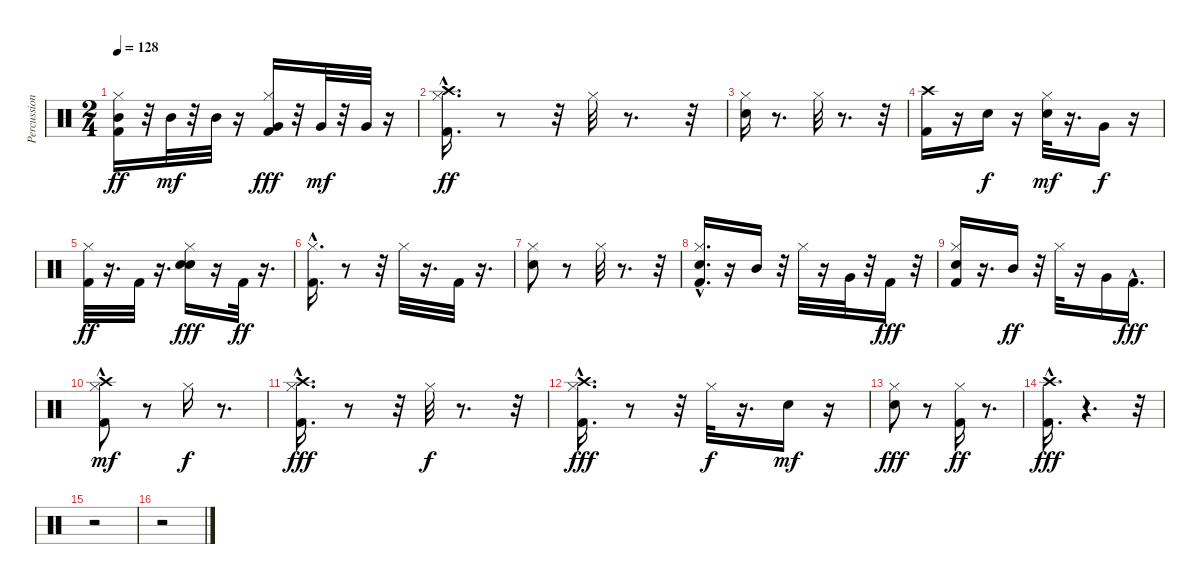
\track ("Percussion" "Percussion") {instrument percussion}
\staff {score}
\articulation defaults
\ts (2 4)
\tempo 128
\clef neutral
\ks c
("Kick (hit) 2" "Mid Tom (hit)" "Hi-Hat (closed)").16{dy ff} r.32 "Mid Tom (hit)".32{dy mf} r.32 "Mid Tom (hit)".32 r.16 ("Hi-Hat (closed)" "Very Low Tom (hit)" "Kick (hit) 2").16{dy fff} r.32 "Very Low Tom (hit)".32{dy mf} r.32 "Very Low Tom (hit)".32 r.16 |
("Hi-Hat (closed)" "Crash high (hit)" "Kick (hit) 2"{hac}).16{d dy ff} r.8 r.32 "Hi-Hat (closed)".32 r.8{d} r.32 |
("Electric Snare (hit)" "Hi-Hat (closed)").16 r.8{d} "Hi-Hat (closed)".32 r.8{d} r.32 |
("Crash high (hit)" "Kick (hit) 2").16 r.16 "Electric Snare (hit)".16{dy f} r.16 ("Hi-Hat (closed)" "Electric Snare (hit)").32{dy mf} r.16{d} "Very Low Tom (hit)".16{dy f} r.16 |
("Hi-Hat (closed)" "Kick (hit) 2").32{dy ff} r.16{d} "Kick (hit) 2".32 r.16{d} ("Hi-Hat (closed)" "Electric Snare (hit)" "Electric Snare (hit)").16{dy fff} r.16 "Kick (hit) 2".32{dy ff} r.16{d} |
("Hi-Hat (closed)"{hac} "Kick (hit) 2").16{d} r.8 r.32 "Hi-Hat (closed)".32 r.16{d} "Kick (hit) 2".32 r.16{d} |
("Electric Snare (hit)" "Hi-Hat (closed)").8 r.8 "Hi-Hat (closed)".32 r.8{d} r.32 |
("Hi-Hat (closed)" "Kick (hit) 2"{hac} "Electric Snare (hit)").16{d} r.16 "Mid Tom (hit)".16 r.32 "Hi-Hat (closed)".32 r.16 "Very Low Tom (hit)".32 r.32 "Kick (hit) 2".16{dy fff} r.32 |
("Electric Snare (hit)" "Hi-Hat (closed)" "Kick (hit) 2").16 r.16{d} "Mid Tom (hit)".16{dy ff} r.32 "Hi-Hat (closed)".32 r.16 "Very Low Tom (hit)".16 "Kick (hit) 2"{hac}.16{d dy fff} |
("Crash high (hit)"{hac} "Kick (hit) 2" "Hi-Hat (closed)"{hac}).8{dy mf} r.8 "Hi-Hat (closed)".16{dy f} r.8{d} |
("Hi-Hat (closed)" "Crash high (hit)" "Kick (hit) 2"{hac}).16{d dy fff} r.8 r.32 "Hi-Hat (closed)".32{dy f} r.8{d} r.32 |
("Hi-Hat (closed)" "Crash high (hit)" "Kick (hit) 2"{hac}).16{d dy fff} r.8 r.32 "Hi-Hat (closed)".32{dy f} r.16{d} "Electric Snare (hit)".16{dy mf} r.16 |
("Hi-Hat (closed)" "Electric Snare (hit)").8{dy fff} r.8 ("Hi-Hat (closed)" "Kick (hit) 2").16{dy ff} r.8{d} |
("Crash high (hit)" "Kick (hit) 2"{hac}).16{d dy fff} r.4{d} r.32 |
r.2 |
r.2
